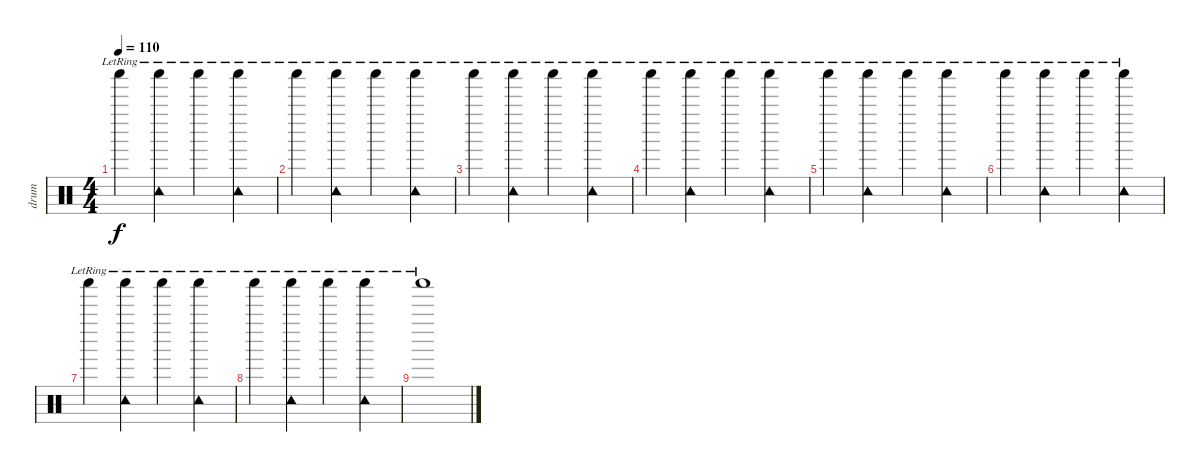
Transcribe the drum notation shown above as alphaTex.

\track ("drum" "drum") {instrument percussion}
\staff {score}
\articulation defaults
\ts (4 4)
\tempo 110
\clef neutral
\ks c "Shaker (hit)"{lr}.4{dy f}
("Tambourine (hit)"{lr} "Shaker (hit)"{lr}).4 "Shaker (hit)"{lr}.4 ("Tambourine (hit)"{lr} "Shaker (hit)"{lr}).4 |
"Shaker (hit)"{lr}.4 ("Tambourine (hit)"{lr} "Shaker (hit)"{lr}).4 "Shaker (hit)"{lr}.4 ("Tambourine (hit)"{lr} "Shaker (hit)"{lr}).4 |
"Shaker (hit)"{lr}.4 ("Tambourine (hit)"{lr} "Shaker (hit)"{lr}).4 "Shaker (hit)"{lr}.4 ("Tambourine (hit)"{lr} "Shaker (hit)"{lr}).4 |
"Shaker (hit)"{lr}.4 ("Tambourine (hit)"{lr} "Shaker (hit)"{lr}).4 "Shaker (hit)"{lr}.4 ("Tambourine (hit)"{lr} "Shaker (hit)"{lr}).4 |
"Shaker (hit)"{lr}.4 ("Tambourine (hit)"{lr} "Shaker (hit)"{lr}).4 "Shaker (hit)"{lr}.4 ("Tambourine (hit)"{lr} "Shaker (hit)"{lr}).4 |
"Shaker (hit)"{lr}.4 ("Tambourine (hit)"{lr} "Shaker (hit)"{lr}).4 "Shaker (hit)"{lr}.4 ("Tambourine (hit)"{lr} "Shaker (hit)"{lr}).4 |
"Shaker (hit)"{lr}.4 ("Tambourine (hit)"{lr} "Shaker (hit)"{lr}).4 "Shaker (hit)"{lr}.4 ("Tambourine (hit)"{lr} "Shaker (hit)"{lr}).4 |
"Shaker (hit)"{lr}.4 ("Tambourine (hit)"{lr} "Shaker (hit)"{lr}).4 "Shaker (hit)"{lr}.4 ("Tambourine (hit)"{lr} "Shaker (hit)"{lr}).4 |
"Shaker (hit)"{lr}.1
